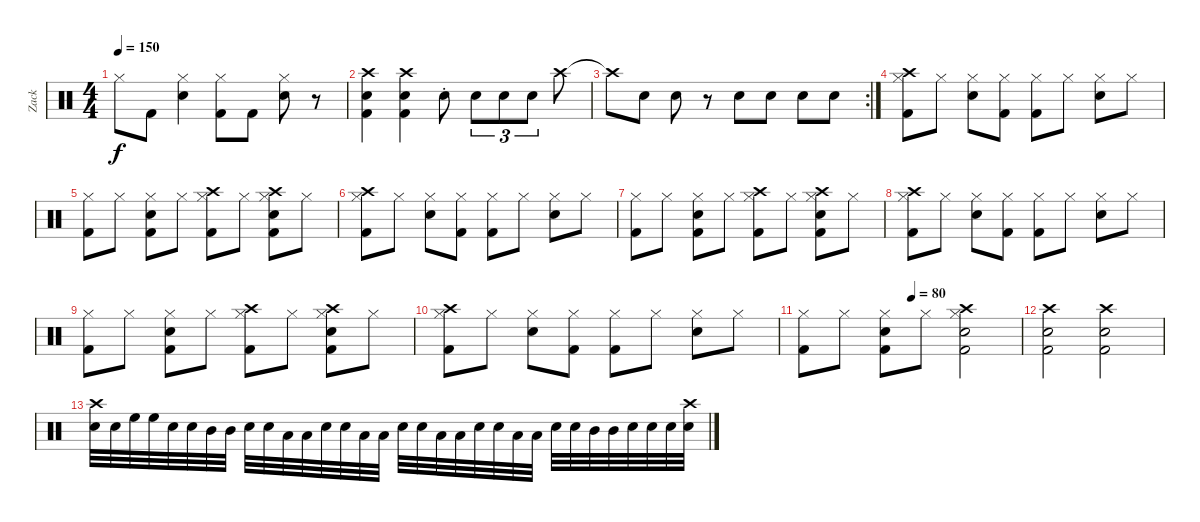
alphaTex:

\track ("Zack" "Zack") {instrument percussion}
\staff {score}
\articulation defaults
\ts (4 4)
\tempo 150
\clef neutral
\ks c "Hi-Hat (closed)".8{dy f} "Kick (hit) 2".8
("Hi-Hat (closed)" "Snare (hit) 2").4 ("Hi-Hat (closed)" "Kick (hit) 2").8 "Kick (hit) 2".8 ("Hi-Hat (closed)" "Snare (hit) 2").8 r.8 |
("Crash high (hit)" "Snare (hit) 2" "Kick (hit) 2").4 ("Crash high (hit)" "Snare (hit) 2" "Kick (hit) 2").4 "Snare (hit) 2"{st}.8 "Snare (hit) 2".8{tu (3 2)} "Snare (hit) 2".8{tu (3 2)} "Snare (hit) 2".8{tu (3 2)} "Crash high (hit)".8 |
\rc 2 "Crash high (hit)"{t}.8 "Snare (hit) 2".8 "Snare (hit) 2".8
r.8 "Snare (hit) 2".8 "Snare (hit) 2".8 "Snare (hit) 2".8 "Snare (hit) 2".8 |
("Hi-Hat (closed)" "Crash high (hit)" "Kick (hit) 2").8 "Hi-Hat (closed)".8 ("Hi-Hat (closed)" "Snare (hit) 2").8 ("Hi-Hat (closed)" "Kick (hit) 2").8 ("Hi-Hat (closed)" "Kick (hit) 2").8 "Hi-Hat (closed)".8 ("Hi-Hat (closed)" "Snare (hit) 2").8 "Hi-Hat (closed)".8 |
("Hi-Hat (closed)" "Kick (hit) 2").8 "Hi-Hat (closed)".8 ("Hi-Hat (closed)" "Snare (hit) 2" "Kick (hit) 2").8 "Hi-Hat (closed)".8 ("Hi-Hat (closed)" "Crash high (hit)" "Kick (hit) 2").8 "Hi-Hat (closed)".8 ("Hi-Hat (closed)" "Crash high (hit)" "Snare (hit) 2" "Kick (hit) 2").8 "Hi-Hat (closed)".8 |
("Hi-Hat (closed)" "Crash high (hit)" "Kick (hit) 2").8 "Hi-Hat (closed)".8 ("Hi-Hat (closed)" "Snare (hit) 2").8 ("Hi-Hat (closed)" "Kick (hit) 2").8 ("Hi-Hat (closed)" "Kick (hit) 2").8 "Hi-Hat (closed)".8 ("Hi-Hat (closed)" "Snare (hit) 2").8 "Hi-Hat (closed)".8 |
("Hi-Hat (closed)" "Kick (hit) 2").8 "Hi-Hat (closed)".8 ("Hi-Hat (closed)" "Snare (hit) 2" "Kick (hit) 2").8 "Hi-Hat (closed)".8 ("Hi-Hat (closed)" "Crash high (hit)" "Kick (hit) 2").8 "Hi-Hat (closed)".8 ("Hi-Hat (closed)" "Crash high (hit)" "Snare (hit) 2" "Kick (hit) 2").8 "Hi-Hat (closed)".8 |
("Hi-Hat (closed)" "Crash high (hit)" "Kick (hit) 2").8 "Hi-Hat (closed)".8 ("Hi-Hat (closed)" "Snare (hit) 2").8 ("Hi-Hat (closed)" "Kick (hit) 2").8 ("Hi-Hat (closed)" "Kick (hit) 2").8 "Hi-Hat (closed)".8 ("Hi-Hat (closed)" "Snare (hit) 2").8 "Hi-Hat (closed)".8 |
("Hi-Hat (closed)" "Kick (hit) 2").8 "Hi-Hat (closed)".8 ("Hi-Hat (closed)" "Snare (hit) 2" "Kick (hit) 2").8 "Hi-Hat (closed)".8 ("Hi-Hat (closed)" "Crash high (hit)" "Kick (hit) 2").8 "Hi-Hat (closed)".8 ("Hi-Hat (closed)" "Crash high (hit)" "Snare (hit) 2" "Kick (hit) 2").8 "Hi-Hat (closed)".8 |
("Hi-Hat (closed)" "Crash high (hit)" "Kick (hit) 2").8 "Hi-Hat (closed)".8 ("Hi-Hat (closed)" "Snare (hit) 2").8 ("Hi-Hat (closed)" "Kick (hit) 2").8 ("Hi-Hat (closed)" "Kick (hit) 2").8 "Hi-Hat (closed)".8 ("Hi-Hat (closed)" "Snare (hit) 2").8 "Hi-Hat (closed)".8 |
\tempo (80 0.5)
("Hi-Hat (closed)" "Kick (hit) 2").8 "Hi-Hat (closed)".8 ("Hi-Hat (closed)" "Snare (hit) 2" "Kick (hit) 2").8 "Hi-Hat (closed)".8 ("Hi-Hat (closed)" "Crash high (hit)" "Snare (hit) 2" "Kick (hit) 2").2 |
("Crash high (hit)" "Snare (hit) 2" "Kick (hit) 2").2 ("Crash high (hit)" "Snare (hit) 2" "Kick (hit) 2").2 |
("Crash high (hit)" "Snare (hit) 2").32 "Snare (hit) 2".32 "High Floor Tom (hit)".32 "High Floor Tom (hit)".32 "Snare (hit) 2".32 "Snare (hit) 2".32 "Mid Tom (hit)".32 "Mid Tom (hit)".32 "Snare (hit) 2".32 "Snare (hit) 2".32 "Low Tom (hit)".32 "Low Tom (hit)".32 "Snare (hit) 2".32 "Snare (hit) 2".32 "Low Floor Tom (hit)".32 "Low Floor Tom (hit)".32 "Snare (hit) 2".32 "Snare (hit) 2".32 "Low Floor Tom (hit)".32 "Low Floor Tom (hit)".32 "Snare (hit) 2".32 "Snare (hit) 2".32 "Low Tom (hit)".32 "Low Tom (hit)".32 "Snare (hit) 2".32 "Snare (hit) 2".32 "Mid Tom (hit)".32 "Mid Tom (hit)".32 "Snare (hit) 2".32 "Snare (hit) 2".32 "Snare (hit) 2".32 ("Crash high (hit)" "Snare (hit) 2").32
